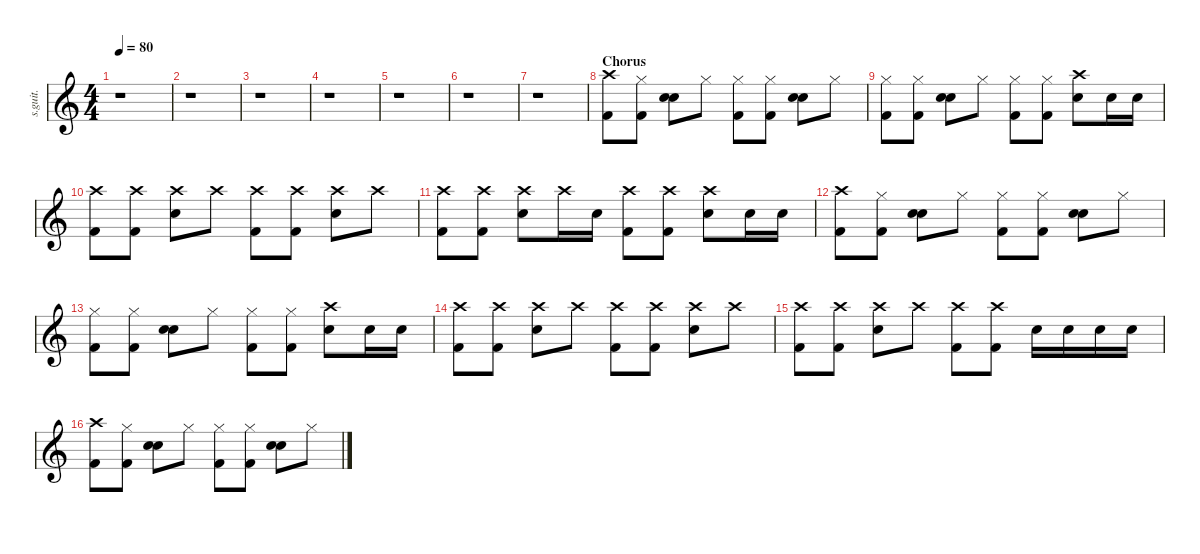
\defaultSystemsLayout 4
\hideDynamics
\bracketExtendMode nobrackets
\track ("Tré Cool" "s.guit.") {instrument percussion}
\staff {score}
\articulation defaults
\ts (4 4)
\tempo 80
\clef g2
\ks c
r.1{dy f} |
r.1 |
r.1 |
r.1 |
r.1 |
r.1 |
r.1 |
\section ("" "Chorus")
("Crash high (hit)" "Kick (hit) 2").8{lyrics (0 "") lyrics (1 "") lyrics (2 "") lyrics (3 "") lyrics (4 "")} ("Hi-Hat (closed)" "Kick (hit) 2").8{lyrics (0 "") lyrics (1 "") lyrics (2 "") lyrics (3 "") lyrics (4 "")} ("Snare (hit) 2" "Snare (hit) 2").8{lyrics (0 "") lyrics (1 "") lyrics (2 "") lyrics (3 "") lyrics (4 "")} "Hi-Hat (closed)".8{lyrics (0 "") lyrics (1 "") lyrics (2 "") lyrics (3 "") lyrics (4 "")} ("Hi-Hat (closed)" "Kick (hit) 2").8{lyrics (0 "") lyrics (1 "") lyrics (2 "") lyrics (3 "") lyrics (4 "")} ("Hi-Hat (closed)" "Kick (hit) 2").8{lyrics (0 "") lyrics (1 "") lyrics (2 "") lyrics (3 "") lyrics (4 "")} ("Snare (hit) 2" "Snare (hit) 2").8{lyrics (0 "") lyrics (1 "") lyrics (2 "") lyrics (3 "") lyrics (4 "")} "Hi-Hat (closed)".8{lyrics (0 "") lyrics (1 "") lyrics (2 "") lyrics (3 "") lyrics (4 "")} |
("Hi-Hat (closed)" "Kick (hit) 2").8{lyrics (0 "") lyrics (1 "") lyrics (2 "") lyrics (3 "") lyrics (4 "")} ("Hi-Hat (closed)" "Kick (hit) 2").8{lyrics (0 "") lyrics (1 "") lyrics (2 "") lyrics (3 "") lyrics (4 "")} ("Snare (hit) 2" "Snare (hit) 2").8{lyrics (0 "") lyrics (1 "") lyrics (2 "") lyrics (3 "") lyrics (4 "")} "Hi-Hat (closed)".8{lyrics (0 "") lyrics (1 "") lyrics (2 "") lyrics (3 "") lyrics (4 "")} ("Hi-Hat (closed)" "Kick (hit) 2").8{lyrics (0 "") lyrics (1 "") lyrics (2 "") lyrics (3 "") lyrics (4 "")} ("Hi-Hat (closed)" "Kick (hit) 2").8{lyrics (0 "") lyrics (1 "") lyrics (2 "") lyrics (3 "") lyrics (4 "")} ("Crash high (hit)" "Snare (hit) 2").8{lyrics (0 "") lyrics (1 "") lyrics (2 "") lyrics (3 "") lyrics (4 "")} "Snare (hit) 2".16{lyrics (0 "") lyrics (1 "") lyrics (2 "") lyrics (3 "") lyrics (4 "")} "Snare (hit) 2".16{lyrics (0 "") lyrics (1 "") lyrics (2 "") lyrics (3 "") lyrics (4 "")} |
("Crash high (hit)" "Kick (hit) 2").8{lyrics (0 "") lyrics (1 "") lyrics (2 "") lyrics (3 "") lyrics (4 "")} ("Crash high (hit)" "Kick (hit) 2").8{lyrics (0 "") lyrics (1 "") lyrics (2 "") lyrics (3 "") lyrics (4 "")} ("Crash high (hit)" "Snare (hit) 2").8{lyrics (0 "") lyrics (1 "") lyrics (2 "") lyrics (3 "") lyrics (4 "")} "Crash high (hit)".8{lyrics (0 "") lyrics (1 "") lyrics (2 "") lyrics (3 "") lyrics (4 "")} ("Crash high (hit)" "Kick (hit) 2").8{lyrics (0 "") lyrics (1 "") lyrics (2 "") lyrics (3 "") lyrics (4 "")} ("Crash high (hit)" "Kick (hit) 2").8{lyrics (0 "") lyrics (1 "") lyrics (2 "") lyrics (3 "") lyrics (4 "")} ("Crash high (hit)" "Snare (hit) 2").8{lyrics (0 "") lyrics (1 "") lyrics (2 "") lyrics (3 "") lyrics (4 "")} "Crash high (hit)".8{lyrics (0 "") lyrics (1 "") lyrics (2 "") lyrics (3 "") lyrics (4 "")} |
("Crash high (hit)" "Kick (hit) 2").8{lyrics (0 "") lyrics (1 "") lyrics (2 "") lyrics (3 "") lyrics (4 "")} ("Crash high (hit)" "Kick (hit) 2").8{lyrics (0 "") lyrics (1 "") lyrics (2 "") lyrics (3 "") lyrics (4 "")} ("Crash high (hit)" "Snare (hit) 2").8{lyrics (0 "") lyrics (1 "") lyrics (2 "") lyrics (3 "") lyrics (4 "")} "Crash high (hit)".16{lyrics (0 "") lyrics (1 "") lyrics (2 "") lyrics (3 "") lyrics (4 "")} "Snare (hit) 2".16{lyrics (0 "") lyrics (1 "") lyrics (2 "") lyrics (3 "") lyrics (4 "")} ("Crash high (hit)" "Kick (hit) 2").8{lyrics (0 "") lyrics (1 "") lyrics (2 "") lyrics (3 "") lyrics (4 "")} ("Crash high (hit)" "Kick (hit) 2").8{lyrics (0 "") lyrics (1 "") lyrics (2 "") lyrics (3 "") lyrics (4 "")} ("Crash high (hit)" "Snare (hit) 2").8{lyrics (0 "") lyrics (1 "") lyrics (2 "") lyrics (3 "") lyrics (4 "")} "Snare (hit) 2".16{lyrics (0 "") lyrics (1 "") lyrics (2 "") lyrics (3 "") lyrics (4 "")} "Snare (hit) 2".16{lyrics (0 "") lyrics (1 "") lyrics (2 "") lyrics (3 "") lyrics (4 "")} |
("Crash high (hit)" "Kick (hit) 2").8{lyrics (0 "") lyrics (1 "") lyrics (2 "") lyrics (3 "") lyrics (4 "")} ("Hi-Hat (closed)" "Kick (hit) 2").8{lyrics (0 "") lyrics (1 "") lyrics (2 "") lyrics (3 "") lyrics (4 "")} ("Snare (hit) 2" "Snare (hit) 2").8{lyrics (0 "") lyrics (1 "") lyrics (2 "") lyrics (3 "") lyrics (4 "")} "Hi-Hat (closed)".8{lyrics (0 "") lyrics (1 "") lyrics (2 "") lyrics (3 "") lyrics (4 "")} ("Hi-Hat (closed)" "Kick (hit) 2").8{lyrics (0 "") lyrics (1 "") lyrics (2 "") lyrics (3 "") lyrics (4 "")} ("Hi-Hat (closed)" "Kick (hit) 2").8{lyrics (0 "") lyrics (1 "") lyrics (2 "") lyrics (3 "") lyrics (4 "")} ("Snare (hit) 2" "Snare (hit) 2").8{lyrics (0 "") lyrics (1 "") lyrics (2 "") lyrics (3 "") lyrics (4 "")} "Hi-Hat (closed)".8{lyrics (0 "") lyrics (1 "") lyrics (2 "") lyrics (3 "") lyrics (4 "")} |
("Hi-Hat (closed)" "Kick (hit) 2").8{lyrics (0 "") lyrics (1 "") lyrics (2 "") lyrics (3 "") lyrics (4 "")} ("Hi-Hat (closed)" "Kick (hit) 2").8{lyrics (0 "") lyrics (1 "") lyrics (2 "") lyrics (3 "") lyrics (4 "")} ("Snare (hit) 2" "Snare (hit) 2").8{lyrics (0 "") lyrics (1 "") lyrics (2 "") lyrics (3 "") lyrics (4 "")} "Hi-Hat (closed)".8{lyrics (0 "") lyrics (1 "") lyrics (2 "") lyrics (3 "") lyrics (4 "")} ("Hi-Hat (closed)" "Kick (hit) 2").8{lyrics (0 "") lyrics (1 "") lyrics (2 "") lyrics (3 "") lyrics (4 "")} ("Hi-Hat (closed)" "Kick (hit) 2").8{lyrics (0 "") lyrics (1 "") lyrics (2 "") lyrics (3 "") lyrics (4 "")} ("Crash high (hit)" "Snare (hit) 2").8{lyrics (0 "") lyrics (1 "") lyrics (2 "") lyrics (3 "") lyrics (4 "")} "Snare (hit) 2".16{lyrics (0 "") lyrics (1 "") lyrics (2 "") lyrics (3 "") lyrics (4 "")} "Snare (hit) 2".16{lyrics (0 "") lyrics (1 "") lyrics (2 "") lyrics (3 "") lyrics (4 "")} |
("Crash high (hit)" "Kick (hit) 2").8{lyrics (0 "") lyrics (1 "") lyrics (2 "") lyrics (3 "") lyrics (4 "")} ("Crash high (hit)" "Kick (hit) 2").8{lyrics (0 "") lyrics (1 "") lyrics (2 "") lyrics (3 "") lyrics (4 "")} ("Crash high (hit)" "Snare (hit) 2").8{lyrics (0 "") lyrics (1 "") lyrics (2 "") lyrics (3 "") lyrics (4 "")} "Crash high (hit)".8{lyrics (0 "") lyrics (1 "") lyrics (2 "") lyrics (3 "") lyrics (4 "")} ("Crash high (hit)" "Kick (hit) 2").8{lyrics (0 "") lyrics (1 "") lyrics (2 "") lyrics (3 "") lyrics (4 "")} ("Crash high (hit)" "Kick (hit) 2").8{lyrics (0 "") lyrics (1 "") lyrics (2 "") lyrics (3 "") lyrics (4 "")} ("Crash high (hit)" "Snare (hit) 2").8{lyrics (0 "") lyrics (1 "") lyrics (2 "") lyrics (3 "") lyrics (4 "")} "Crash high (hit)".8{lyrics (0 "") lyrics (1 "") lyrics (2 "") lyrics (3 "") lyrics (4 "")} |
("Crash high (hit)" "Kick (hit) 2").8{lyrics (0 "") lyrics (1 "") lyrics (2 "") lyrics (3 "") lyrics (4 "")} ("Crash high (hit)" "Kick (hit) 2").8{lyrics (0 "") lyrics (1 "") lyrics (2 "") lyrics (3 "") lyrics (4 "")} ("Crash high (hit)" "Snare (hit) 2").8{lyrics (0 "") lyrics (1 "") lyrics (2 "") lyrics (3 "") lyrics (4 "")} "Crash high (hit)".8{lyrics (0 "") lyrics (1 "") lyrics (2 "") lyrics (3 "") lyrics (4 "")} ("Crash high (hit)" "Kick (hit) 2").8{lyrics (0 "") lyrics (1 "") lyrics (2 "") lyrics (3 "") lyrics (4 "")} ("Crash high (hit)" "Kick (hit) 2").8{lyrics (0 "") lyrics (1 "") lyrics (2 "") lyrics (3 "") lyrics (4 "")} "Snare (hit) 2".16{lyrics (0 "") lyrics (1 "") lyrics (2 "") lyrics (3 "") lyrics (4 "")} "Snare (hit) 2".16{lyrics (0 "") lyrics (1 "") lyrics (2 "") lyrics (3 "") lyrics (4 "")} "Snare (hit) 2".16{lyrics (0 "") lyrics (1 "") lyrics (2 "") lyrics (3 "") lyrics (4 "")} "Snare (hit) 2".16{lyrics (0 "") lyrics (1 "") lyrics (2 "") lyrics (3 "") lyrics (4 "")} |
("Crash high (hit)" "Kick (hit) 2").8{lyrics (0 "") lyrics (1 "") lyrics (2 "") lyrics (3 "") lyrics (4 "")} ("Hi-Hat (closed)" "Kick (hit) 2").8{lyrics (0 "") lyrics (1 "") lyrics (2 "") lyrics (3 "") lyrics (4 "")} ("Snare (hit) 2" "Snare (hit) 2").8{lyrics (0 "") lyrics (1 "") lyrics (2 "") lyrics (3 "") lyrics (4 "")} "Hi-Hat (closed)".8{lyrics (0 "") lyrics (1 "") lyrics (2 "") lyrics (3 "") lyrics (4 "")} ("Hi-Hat (closed)" "Kick (hit) 2").8{lyrics (0 "") lyrics (1 "") lyrics (2 "") lyrics (3 "") lyrics (4 "")} ("Hi-Hat (closed)" "Kick (hit) 2").8{lyrics (0 "") lyrics (1 "") lyrics (2 "") lyrics (3 "") lyrics (4 "")} ("Snare (hit) 2" "Snare (hit) 2").8{lyrics (0 "") lyrics (1 "") lyrics (2 "") lyrics (3 "") lyrics (4 "")} "Hi-Hat (closed)".8{lyrics (0 "") lyrics (1 "") lyrics (2 "") lyrics (3 "") lyrics (4 "")}
